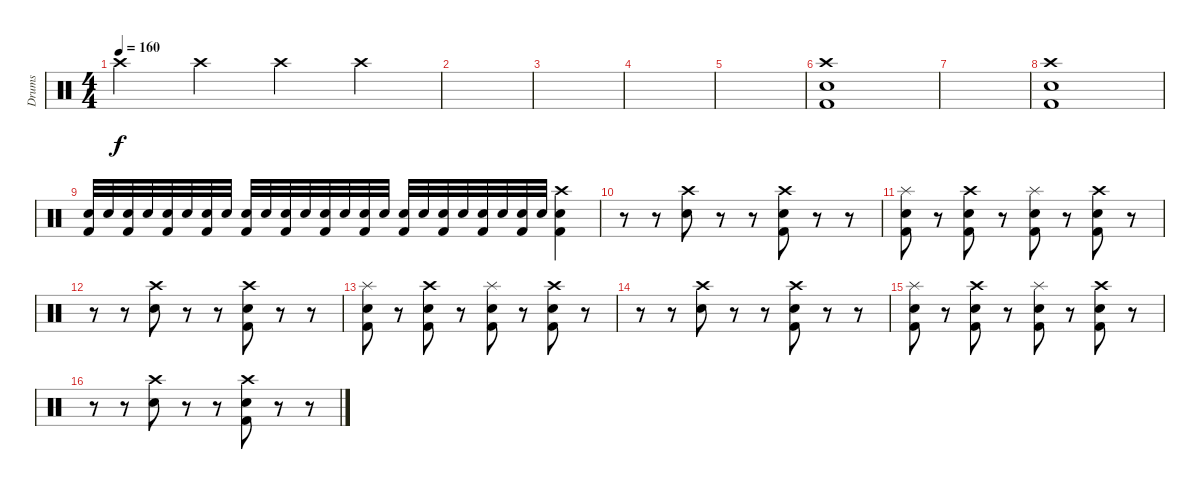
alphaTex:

\track ("Drums" "Drums") {instrument percussion}
\staff {score}
\articulation defaults
\ts (4 4)
\tempo 160
\clef neutral
\ks c "Crash high (hit)".4{dy f} "Crash high (hit)".4 "Crash high (hit)".4 "Crash high (hit)".4
|
|
|
|
|
("Snare (hit) 2" "Crash high (hit)" "Kick (hit) 2").1 |
|
("Kick (hit) 2" "Snare (hit) 2" "Crash high (hit)").1 |
("Kick (hit) 2" "Snare (hit) 2").32 "Snare (hit) 2".32 ("Kick (hit) 2" "Snare (hit) 2").32 "Snare (hit) 2".32 ("Snare (hit) 2" "Kick (hit) 2").32 "Snare (hit) 2".32 ("Kick (hit) 2" "Snare (hit) 2").32 "Snare (hit) 2".32 ("Snare (hit) 2" "Kick (hit) 2").32 "Snare (hit) 2".32 ("Snare (hit) 2" "Kick (hit) 2").32 "Snare (hit) 2".32 ("Kick (hit) 2" "Snare (hit) 2").32 "Snare (hit) 2".32 ("Snare (hit) 2" "Kick (hit) 2").32 "Snare (hit) 2".32 ("Kick (hit) 2" "Snare (hit) 2").32 "Snare (hit) 2".32 ("Snare (hit) 2" "Kick (hit) 2").32 "Snare (hit) 2".32 ("Kick (hit) 2" "Snare (hit) 2").32 "Snare (hit) 2".32 ("Kick (hit) 2" "Snare (hit) 2").32 "Snare (hit) 2".32 ("Crash high (hit)" "Kick (hit) 2" "Snare (hit) 2").4 |
r.8 r.8 ("Crash high (hit)" "Snare (hit) 2").8 r.8 r.8 ("Kick (hit) 2" "Snare (hit) 2" "Crash high (hit)").8 r.8 r.8 |
("Kick (hit) 2" "Splash (hit)" "Snare (hit) 2").8 r.8 ("Kick (hit) 2" "Snare (hit) 2" "Crash high (hit)").8 r.8 ("Kick (hit) 2" "Snare (hit) 2" "Splash (hit)").8 r.8 ("Kick (hit) 2" "Crash high (hit)" "Snare (hit) 2").8 r.8 |
r.8 r.8 ("Crash high (hit)" "Snare (hit) 2").8 r.8 r.8 ("Kick (hit) 2" "Snare (hit) 2" "Crash high (hit)").8 r.8 r.8 |
("Kick (hit) 2" "Splash (hit)" "Snare (hit) 2").8 r.8 ("Kick (hit) 2" "Snare (hit) 2" "Crash high (hit)").8 r.8 ("Kick (hit) 2" "Snare (hit) 2" "Splash (hit)").8 r.8 ("Kick (hit) 2" "Crash high (hit)" "Snare (hit) 2").8 r.8 |
r.8 r.8 ("Crash high (hit)" "Snare (hit) 2").8 r.8 r.8 ("Kick (hit) 2" "Snare (hit) 2" "Crash high (hit)").8 r.8 r.8 |
("Kick (hit) 2" "Splash (hit)" "Snare (hit) 2").8 r.8 ("Kick (hit) 2" "Snare (hit) 2" "Crash high (hit)").8 r.8 ("Kick (hit) 2" "Snare (hit) 2" "Splash (hit)").8 r.8 ("Kick (hit) 2" "Crash high (hit)" "Snare (hit) 2").8 r.8 |
r.8 r.8 ("Crash high (hit)" "Snare (hit) 2").8 r.8 r.8 ("Kick (hit) 2" "Snare (hit) 2" "Crash high (hit)").8 r.8 r.8
